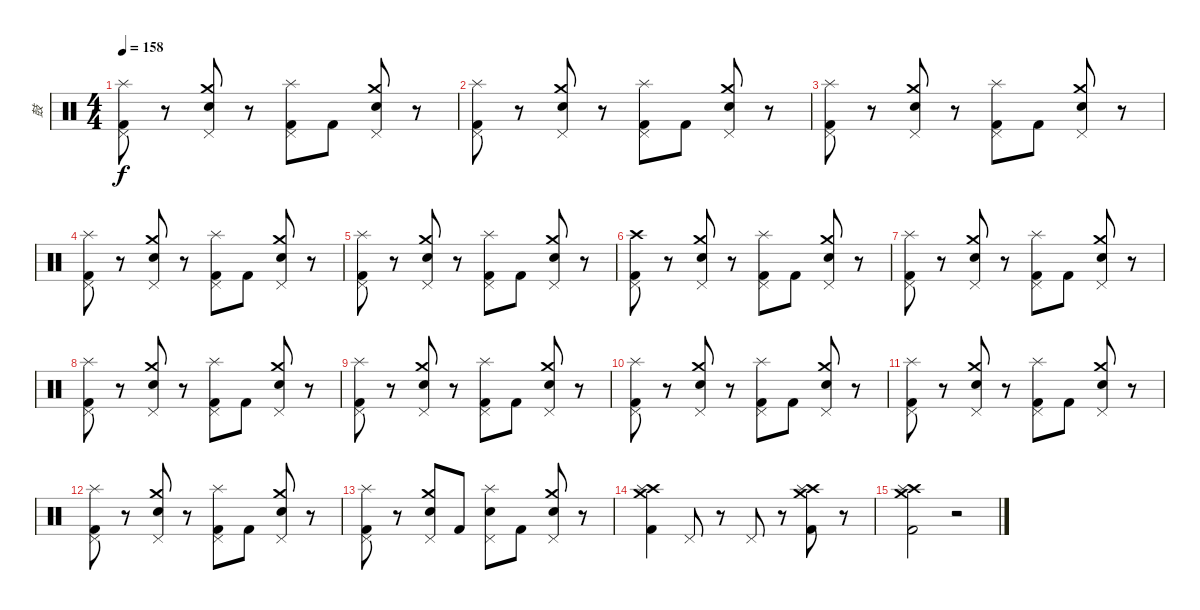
\track ("鼓" "鼓") {instrument percussion}
\staff {score}
\articulation defaults
\ts (4 4)
\tempo 158
\clef neutral
\ks c
("Splash (hit)" "Pedal Hi-Hat (hit)" "Kick (hit) 2").8{dy f} r.8 ("Crash medium (hit)" "Pedal Hi-Hat (hit)" "Electric Snare (hit)").8 r.8 ("Splash (hit)" "Pedal Hi-Hat (hit)" "Kick (hit) 2").8 "Kick (hit) 2".8 ("Crash medium (hit)" "Pedal Hi-Hat (hit)" "Electric Snare (hit)").8 r.8 |
("Splash (hit)" "Pedal Hi-Hat (hit)" "Kick (hit) 2").8 r.8 ("Crash medium (hit)" "Pedal Hi-Hat (hit)" "Electric Snare (hit)").8 r.8 ("Splash (hit)" "Pedal Hi-Hat (hit)" "Kick (hit) 2").8 "Kick (hit) 2".8 ("Crash medium (hit)" "Pedal Hi-Hat (hit)" "Electric Snare (hit)").8 r.8 |
("Splash (hit)" "Pedal Hi-Hat (hit)" "Kick (hit) 2").8 r.8 ("Crash medium (hit)" "Pedal Hi-Hat (hit)" "Electric Snare (hit)").8 r.8 ("Splash (hit)" "Pedal Hi-Hat (hit)" "Kick (hit) 2").8 "Kick (hit) 2".8 ("Crash medium (hit)" "Pedal Hi-Hat (hit)" "Electric Snare (hit)").8 r.8 |
("Splash (hit)" "Pedal Hi-Hat (hit)" "Kick (hit) 2").8 r.8 ("Crash medium (hit)" "Pedal Hi-Hat (hit)" "Electric Snare (hit)").8 r.8 ("Splash (hit)" "Pedal Hi-Hat (hit)" "Kick (hit) 2").8 "Kick (hit) 2".8 ("Crash medium (hit)" "Pedal Hi-Hat (hit)" "Electric Snare (hit)").8 r.8 |
("Splash (hit)" "Pedal Hi-Hat (hit)" "Kick (hit) 2").8 r.8 ("Crash medium (hit)" "Pedal Hi-Hat (hit)" "Electric Snare (hit)").8 r.8 ("Splash (hit)" "Pedal Hi-Hat (hit)" "Kick (hit) 2").8 "Kick (hit) 2".8 ("Crash medium (hit)" "Pedal Hi-Hat (hit)" "Electric Snare (hit)").8 r.8 |
("Crash high (hit)" "Pedal Hi-Hat (hit)" "Kick (hit) 2").8 r.8 ("Crash medium (hit)" "Pedal Hi-Hat (hit)" "Electric Snare (hit)").8 r.8 ("Splash (hit)" "Pedal Hi-Hat (hit)" "Kick (hit) 2").8 "Kick (hit) 2".8 ("Crash medium (hit)" "Pedal Hi-Hat (hit)" "Electric Snare (hit)").8 r.8 |
("Splash (hit)" "Pedal Hi-Hat (hit)" "Kick (hit) 2").8 r.8 ("Crash medium (hit)" "Pedal Hi-Hat (hit)" "Electric Snare (hit)").8 r.8 ("Splash (hit)" "Pedal Hi-Hat (hit)" "Kick (hit) 2").8 "Kick (hit) 2".8 ("Crash medium (hit)" "Pedal Hi-Hat (hit)" "Electric Snare (hit)").8 r.8 |
("Splash (hit)" "Pedal Hi-Hat (hit)" "Kick (hit) 2").8 r.8 ("Crash medium (hit)" "Pedal Hi-Hat (hit)" "Electric Snare (hit)").8 r.8 ("Splash (hit)" "Pedal Hi-Hat (hit)" "Kick (hit) 2").8 "Kick (hit) 2".8 ("Crash medium (hit)" "Pedal Hi-Hat (hit)" "Electric Snare (hit)").8 r.8 |
("Splash (hit)" "Pedal Hi-Hat (hit)" "Kick (hit) 2").8 r.8 ("Crash medium (hit)" "Pedal Hi-Hat (hit)" "Electric Snare (hit)").8 r.8 ("Splash (hit)" "Pedal Hi-Hat (hit)" "Kick (hit) 2").8 "Kick (hit) 2".8 ("Crash medium (hit)" "Pedal Hi-Hat (hit)" "Electric Snare (hit)").8 r.8 |
("Splash (hit)" "Pedal Hi-Hat (hit)" "Kick (hit) 2").8 r.8 ("Crash medium (hit)" "Pedal Hi-Hat (hit)" "Electric Snare (hit)").8 r.8 ("Splash (hit)" "Pedal Hi-Hat (hit)" "Kick (hit) 2").8 "Kick (hit) 2".8 ("Crash medium (hit)" "Pedal Hi-Hat (hit)" "Electric Snare (hit)").8 r.8 |
("Splash (hit)" "Pedal Hi-Hat (hit)" "Kick (hit) 2").8 r.8 ("Crash medium (hit)" "Pedal Hi-Hat (hit)" "Electric Snare (hit)").8 r.8 ("Splash (hit)" "Pedal Hi-Hat (hit)" "Kick (hit) 2").8 "Kick (hit) 2".8 ("Crash medium (hit)" "Pedal Hi-Hat (hit)" "Electric Snare (hit)").8 r.8 |
("Splash (hit)" "Pedal Hi-Hat (hit)" "Kick (hit) 2").8 r.8 ("Crash medium (hit)" "Pedal Hi-Hat (hit)" "Electric Snare (hit)").8 r.8 ("Splash (hit)" "Pedal Hi-Hat (hit)" "Kick (hit) 2").8 "Kick (hit) 2".8 ("Crash medium (hit)" "Pedal Hi-Hat (hit)" "Electric Snare (hit)").8 r.8 |
("Splash (hit)" "Pedal Hi-Hat (hit)" "Kick (hit) 2").8 r.8 ("Crash medium (hit)" "Pedal Hi-Hat (hit)" "Electric Snare (hit)").8 "Kick (hit) 2".8 ("Splash (hit)" "Pedal Hi-Hat (hit)" "Electric Snare (hit)").8 "Kick (hit) 2".8 ("Crash medium (hit)" "Pedal Hi-Hat (hit)" "Electric Snare (hit)").8 r.8 |
("Crash high (hit)" "Splash (hit)" "Crash medium (hit)" "Kick (hit) 2").4 "Pedal Hi-Hat (hit)".8 r.8 "Pedal Hi-Hat (hit)".8 r.8 ("Crash high (hit)" "Splash (hit)" "Crash medium (hit)" "Kick (hit) 2").8 r.8 |
("Crash high (hit)" "Splash (hit)" "Crash medium (hit)" "Kick (hit) 2").2 r.2
